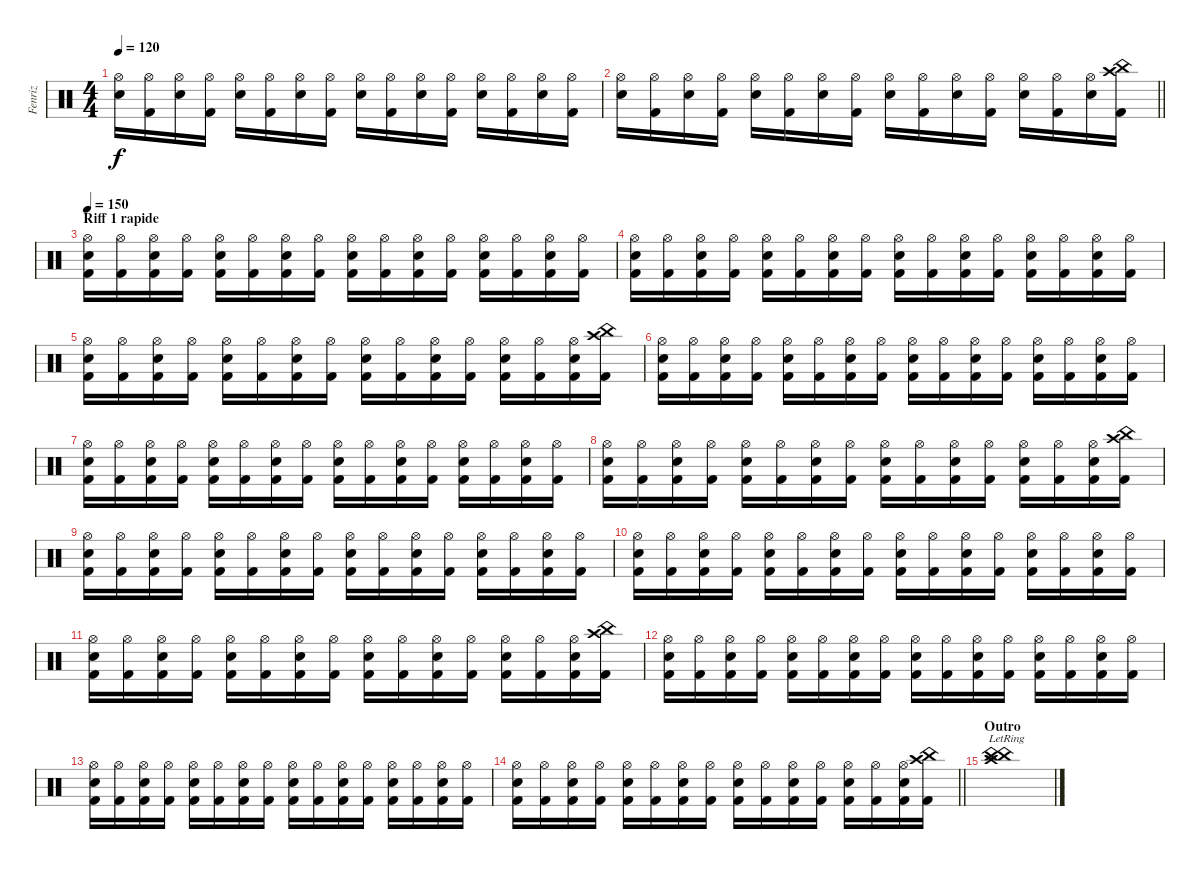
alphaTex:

\track ("Fenriz" "Fenriz") {instrument percussion}
\staff {score}
\articulation defaults
\ts (4 4)
\tempo 120
\clef neutral
\ks c
("Hi-Hat (open)" "Electric Snare (hit)").16{dy f} ("Hi-Hat (open)" "Kick (hit) 2").16 ("Hi-Hat (open)" "Electric Snare (hit)").16 ("Hi-Hat (open)" "Kick (hit) 2").16 ("Hi-Hat (open)" "Electric Snare (hit)").16 ("Hi-Hat (open)" "Kick (hit) 2").16 ("Hi-Hat (open)" "Electric Snare (hit)").16 ("Hi-Hat (open)" "Kick (hit) 2").16 ("Hi-Hat (open)" "Electric Snare (hit)").16 ("Hi-Hat (open)" "Kick (hit) 2").16 ("Hi-Hat (open)" "Electric Snare (hit)").16 ("Hi-Hat (open)" "Kick (hit) 2").16 ("Hi-Hat (open)" "Electric Snare (hit)").16 ("Hi-Hat (open)" "Kick (hit) 2").16 ("Hi-Hat (open)" "Electric Snare (hit)").16 ("Hi-Hat (open)" "Kick (hit) 2").16 |
\barLineRight lightlight
("Hi-Hat (open)" "Electric Snare (hit)").16 ("Hi-Hat (open)" "Kick (hit) 2").16 ("Hi-Hat (open)" "Electric Snare (hit)").16 ("Hi-Hat (open)" "Kick (hit) 2").16 ("Hi-Hat (open)" "Electric Snare (hit)").16 ("Hi-Hat (open)" "Kick (hit) 2").16 ("Hi-Hat (open)" "Electric Snare (hit)").16 ("Hi-Hat (open)" "Kick (hit) 2").16 ("Hi-Hat (open)" "Electric Snare (hit)").16 ("Hi-Hat (open)" "Kick (hit) 2").16 ("Hi-Hat (open)" "Electric Snare (hit)").16 ("Hi-Hat (open)" "Kick (hit) 2").16 ("Hi-Hat (open)" "Electric Snare (hit)").16 ("Hi-Hat (open)" "Kick (hit) 2").16 ("Hi-Hat (open)" "Electric Snare (hit)").16 ("China (hit)" "Crash high (hit)" "Kick (hit) 2").16 |
\section ("" "Riff 1 rapide")
\tempo 150
("Hi-Hat (open)" "Electric Snare (hit)" "Kick (hit) 2").16 ("Hi-Hat (open)" "Kick (hit) 2").16 ("Hi-Hat (open)" "Electric Snare (hit)" "Kick (hit) 2").16 ("Hi-Hat (open)" "Kick (hit) 2").16 ("Hi-Hat (open)" "Electric Snare (hit)" "Kick (hit) 2").16 ("Hi-Hat (open)" "Kick (hit) 2").16 ("Hi-Hat (open)" "Electric Snare (hit)" "Kick (hit) 2").16 ("Hi-Hat (open)" "Kick (hit) 2").16 ("Hi-Hat (open)" "Electric Snare (hit)" "Kick (hit) 2").16 ("Hi-Hat (open)" "Kick (hit) 2").16 ("Hi-Hat (open)" "Electric Snare (hit)" "Kick (hit) 2").16 ("Hi-Hat (open)" "Kick (hit) 2").16 ("Hi-Hat (open)" "Electric Snare (hit)" "Kick (hit) 2").16 ("Hi-Hat (open)" "Kick (hit) 2").16 ("Hi-Hat (open)" "Electric Snare (hit)" "Kick (hit) 2").16 ("Hi-Hat (open)" "Kick (hit) 2").16 |
("Hi-Hat (open)" "Electric Snare (hit)" "Kick (hit) 2").16 ("Hi-Hat (open)" "Kick (hit) 2").16 ("Hi-Hat (open)" "Electric Snare (hit)" "Kick (hit) 2").16 ("Hi-Hat (open)" "Kick (hit) 2").16 ("Hi-Hat (open)" "Electric Snare (hit)" "Kick (hit) 2").16 ("Hi-Hat (open)" "Kick (hit) 2").16 ("Hi-Hat (open)" "Electric Snare (hit)" "Kick (hit) 2").16 ("Hi-Hat (open)" "Kick (hit) 2").16 ("Hi-Hat (open)" "Electric Snare (hit)" "Kick (hit) 2").16 ("Hi-Hat (open)" "Kick (hit) 2").16 ("Hi-Hat (open)" "Electric Snare (hit)" "Kick (hit) 2").16 ("Hi-Hat (open)" "Kick (hit) 2").16 ("Hi-Hat (open)" "Electric Snare (hit)" "Kick (hit) 2").16 ("Hi-Hat (open)" "Kick (hit) 2").16 ("Hi-Hat (open)" "Electric Snare (hit)" "Kick (hit) 2").16 ("Hi-Hat (open)" "Kick (hit) 2").16 |
("Hi-Hat (open)" "Electric Snare (hit)" "Kick (hit) 2").16 ("Hi-Hat (open)" "Kick (hit) 2").16 ("Hi-Hat (open)" "Electric Snare (hit)" "Kick (hit) 2").16 ("Hi-Hat (open)" "Kick (hit) 2").16 ("Hi-Hat (open)" "Electric Snare (hit)" "Kick (hit) 2").16 ("Hi-Hat (open)" "Kick (hit) 2").16 ("Hi-Hat (open)" "Electric Snare (hit)" "Kick (hit) 2").16 ("Hi-Hat (open)" "Kick (hit) 2").16 ("Hi-Hat (open)" "Electric Snare (hit)" "Kick (hit) 2").16 ("Hi-Hat (open)" "Kick (hit) 2").16 ("Hi-Hat (open)" "Electric Snare (hit)" "Kick (hit) 2").16 ("Hi-Hat (open)" "Kick (hit) 2").16 ("Hi-Hat (open)" "Electric Snare (hit)" "Kick (hit) 2").16 ("Hi-Hat (open)" "Kick (hit) 2").16 ("Hi-Hat (open)" "Electric Snare (hit)" "Kick (hit) 2").16 ("China (hit)" "Crash high (hit)" "Kick (hit) 2").16 |
("Hi-Hat (open)" "Electric Snare (hit)" "Kick (hit) 2").16 ("Hi-Hat (open)" "Kick (hit) 2").16 ("Hi-Hat (open)" "Electric Snare (hit)" "Kick (hit) 2").16 ("Hi-Hat (open)" "Kick (hit) 2").16 ("Hi-Hat (open)" "Electric Snare (hit)" "Kick (hit) 2").16 ("Hi-Hat (open)" "Kick (hit) 2").16 ("Hi-Hat (open)" "Electric Snare (hit)" "Kick (hit) 2").16 ("Hi-Hat (open)" "Kick (hit) 2").16 ("Hi-Hat (open)" "Electric Snare (hit)" "Kick (hit) 2").16 ("Hi-Hat (open)" "Kick (hit) 2").16 ("Hi-Hat (open)" "Electric Snare (hit)" "Kick (hit) 2").16 ("Hi-Hat (open)" "Kick (hit) 2").16 ("Hi-Hat (open)" "Electric Snare (hit)" "Kick (hit) 2").16 ("Hi-Hat (open)" "Kick (hit) 2").16 ("Hi-Hat (open)" "Electric Snare (hit)" "Kick (hit) 2").16 ("Hi-Hat (open)" "Kick (hit) 2").16 |
("Hi-Hat (open)" "Electric Snare (hit)" "Kick (hit) 2").16 ("Hi-Hat (open)" "Kick (hit) 2").16 ("Hi-Hat (open)" "Electric Snare (hit)" "Kick (hit) 2").16 ("Hi-Hat (open)" "Kick (hit) 2").16 ("Hi-Hat (open)" "Electric Snare (hit)" "Kick (hit) 2").16 ("Hi-Hat (open)" "Kick (hit) 2").16 ("Hi-Hat (open)" "Electric Snare (hit)" "Kick (hit) 2").16 ("Hi-Hat (open)" "Kick (hit) 2").16 ("Hi-Hat (open)" "Electric Snare (hit)" "Kick (hit) 2").16 ("Hi-Hat (open)" "Kick (hit) 2").16 ("Hi-Hat (open)" "Electric Snare (hit)" "Kick (hit) 2").16 ("Hi-Hat (open)" "Kick (hit) 2").16 ("Hi-Hat (open)" "Electric Snare (hit)" "Kick (hit) 2").16 ("Hi-Hat (open)" "Kick (hit) 2").16 ("Hi-Hat (open)" "Electric Snare (hit)" "Kick (hit) 2").16 ("Hi-Hat (open)" "Kick (hit) 2").16 |
("Hi-Hat (open)" "Electric Snare (hit)" "Kick (hit) 2").16 ("Hi-Hat (open)" "Kick (hit) 2").16 ("Hi-Hat (open)" "Electric Snare (hit)" "Kick (hit) 2").16 ("Hi-Hat (open)" "Kick (hit) 2").16 ("Hi-Hat (open)" "Electric Snare (hit)" "Kick (hit) 2").16 ("Hi-Hat (open)" "Kick (hit) 2").16 ("Hi-Hat (open)" "Electric Snare (hit)" "Kick (hit) 2").16 ("Hi-Hat (open)" "Kick (hit) 2").16 ("Hi-Hat (open)" "Electric Snare (hit)" "Kick (hit) 2").16 ("Hi-Hat (open)" "Kick (hit) 2").16 ("Hi-Hat (open)" "Electric Snare (hit)" "Kick (hit) 2").16 ("Hi-Hat (open)" "Kick (hit) 2").16 ("Hi-Hat (open)" "Electric Snare (hit)" "Kick (hit) 2").16 ("Hi-Hat (open)" "Kick (hit) 2").16 ("Hi-Hat (open)" "Electric Snare (hit)" "Kick (hit) 2").16 ("China (hit)" "Crash high (hit)" "Kick (hit) 2").16 |
("Hi-Hat (open)" "Electric Snare (hit)" "Kick (hit) 2").16 ("Hi-Hat (open)" "Kick (hit) 2").16 ("Hi-Hat (open)" "Electric Snare (hit)" "Kick (hit) 2").16 ("Hi-Hat (open)" "Kick (hit) 2").16 ("Hi-Hat (open)" "Electric Snare (hit)" "Kick (hit) 2").16 ("Hi-Hat (open)" "Kick (hit) 2").16 ("Hi-Hat (open)" "Electric Snare (hit)" "Kick (hit) 2").16 ("Hi-Hat (open)" "Kick (hit) 2").16 ("Hi-Hat (open)" "Electric Snare (hit)" "Kick (hit) 2").16 ("Hi-Hat (open)" "Kick (hit) 2").16 ("Hi-Hat (open)" "Electric Snare (hit)" "Kick (hit) 2").16 ("Hi-Hat (open)" "Kick (hit) 2").16 ("Hi-Hat (open)" "Electric Snare (hit)" "Kick (hit) 2").16 ("Hi-Hat (open)" "Kick (hit) 2").16 ("Hi-Hat (open)" "Electric Snare (hit)" "Kick (hit) 2").16 ("Hi-Hat (open)" "Kick (hit) 2").16 |
("Hi-Hat (open)" "Electric Snare (hit)" "Kick (hit) 2").16 ("Hi-Hat (open)" "Kick (hit) 2").16 ("Hi-Hat (open)" "Electric Snare (hit)" "Kick (hit) 2").16 ("Hi-Hat (open)" "Kick (hit) 2").16 ("Hi-Hat (open)" "Electric Snare (hit)" "Kick (hit) 2").16 ("Hi-Hat (open)" "Kick (hit) 2").16 ("Hi-Hat (open)" "Electric Snare (hit)" "Kick (hit) 2").16 ("Hi-Hat (open)" "Kick (hit) 2").16 ("Hi-Hat (open)" "Electric Snare (hit)" "Kick (hit) 2").16 ("Hi-Hat (open)" "Kick (hit) 2").16 ("Hi-Hat (open)" "Electric Snare (hit)" "Kick (hit) 2").16 ("Hi-Hat (open)" "Kick (hit) 2").16 ("Hi-Hat (open)" "Electric Snare (hit)" "Kick (hit) 2").16 ("Hi-Hat (open)" "Kick (hit) 2").16 ("Hi-Hat (open)" "Electric Snare (hit)" "Kick (hit) 2").16 ("Hi-Hat (open)" "Kick (hit) 2").16 |
("Hi-Hat (open)" "Electric Snare (hit)" "Kick (hit) 2").16 ("Hi-Hat (open)" "Kick (hit) 2").16 ("Hi-Hat (open)" "Electric Snare (hit)" "Kick (hit) 2").16 ("Hi-Hat (open)" "Kick (hit) 2").16 ("Hi-Hat (open)" "Electric Snare (hit)" "Kick (hit) 2").16 ("Hi-Hat (open)" "Kick (hit) 2").16 ("Hi-Hat (open)" "Electric Snare (hit)" "Kick (hit) 2").16 ("Hi-Hat (open)" "Kick (hit) 2").16 ("Hi-Hat (open)" "Electric Snare (hit)" "Kick (hit) 2").16 ("Hi-Hat (open)" "Kick (hit) 2").16 ("Hi-Hat (open)" "Electric Snare (hit)" "Kick (hit) 2").16 ("Hi-Hat (open)" "Kick (hit) 2").16 ("Hi-Hat (open)" "Electric Snare (hit)" "Kick (hit) 2").16 ("Hi-Hat (open)" "Kick (hit) 2").16 ("Hi-Hat (open)" "Electric Snare (hit)" "Kick (hit) 2").16 ("China (hit)" "Crash high (hit)" "Kick (hit) 2").16 |
("Hi-Hat (open)" "Electric Snare (hit)" "Kick (hit) 2").16 ("Hi-Hat (open)" "Kick (hit) 2").16 ("Hi-Hat (open)" "Electric Snare (hit)" "Kick (hit) 2").16 ("Hi-Hat (open)" "Kick (hit) 2").16 ("Hi-Hat (open)" "Electric Snare (hit)" "Kick (hit) 2").16 ("Hi-Hat (open)" "Kick (hit) 2").16 ("Hi-Hat (open)" "Electric Snare (hit)" "Kick (hit) 2").16 ("Hi-Hat (open)" "Kick (hit) 2").16 ("Hi-Hat (open)" "Electric Snare (hit)" "Kick (hit) 2").16 ("Hi-Hat (open)" "Kick (hit) 2").16 ("Hi-Hat (open)" "Electric Snare (hit)" "Kick (hit) 2").16 ("Hi-Hat (open)" "Kick (hit) 2").16 ("Hi-Hat (open)" "Electric Snare (hit)" "Kick (hit) 2").16 ("Hi-Hat (open)" "Kick (hit) 2").16 ("Hi-Hat (open)" "Electric Snare (hit)" "Kick (hit) 2").16 ("Hi-Hat (open)" "Kick (hit) 2").16 |
("Hi-Hat (open)" "Electric Snare (hit)" "Kick (hit) 2").16 ("Hi-Hat (open)" "Kick (hit) 2").16 ("Hi-Hat (open)" "Electric Snare (hit)" "Kick (hit) 2").16 ("Hi-Hat (open)" "Kick (hit) 2").16 ("Hi-Hat (open)" "Electric Snare (hit)" "Kick (hit) 2").16 ("Hi-Hat (open)" "Kick (hit) 2").16 ("Hi-Hat (open)" "Electric Snare (hit)" "Kick (hit) 2").16 ("Hi-Hat (open)" "Kick (hit) 2").16 ("Hi-Hat (open)" "Electric Snare (hit)" "Kick (hit) 2").16 ("Hi-Hat (open)" "Kick (hit) 2").16 ("Hi-Hat (open)" "Electric Snare (hit)" "Kick (hit) 2").16 ("Hi-Hat (open)" "Kick (hit) 2").16 ("Hi-Hat (open)" "Electric Snare (hit)" "Kick (hit) 2").16 ("Hi-Hat (open)" "Kick (hit) 2").16 ("Hi-Hat (open)" "Electric Snare (hit)" "Kick (hit) 2").16 ("Hi-Hat (open)" "Kick (hit) 2").16 |
\barLineRight lightlight
("Hi-Hat (open)" "Electric Snare (hit)" "Kick (hit) 2").16 ("Hi-Hat (open)" "Kick (hit) 2").16 ("Hi-Hat (open)" "Electric Snare (hit)" "Kick (hit) 2").16 ("Hi-Hat (open)" "Kick (hit) 2").16 ("Hi-Hat (open)" "Electric Snare (hit)" "Kick (hit) 2").16 ("Hi-Hat (open)" "Kick (hit) 2").16 ("Hi-Hat (open)" "Electric Snare (hit)" "Kick (hit) 2").16 ("Hi-Hat (open)" "Kick (hit) 2").16 ("Hi-Hat (open)" "Electric Snare (hit)" "Kick (hit) 2").16 ("Hi-Hat (open)" "Kick (hit) 2").16 ("Hi-Hat (open)" "Electric Snare (hit)" "Kick (hit) 2").16 ("Hi-Hat (open)" "Kick (hit) 2").16 ("Hi-Hat (open)" "Electric Snare (hit)" "Kick (hit) 2").16 ("Hi-Hat (open)" "Kick (hit) 2").16 ("Hi-Hat (open)" "Electric Snare (hit)" "Kick (hit) 2").16 ("China (hit)" "Crash high (hit)" "Kick (hit) 2").16 |
\section ("" "Outro")
("China (hit)"{lr} "China (hit)"{lr} "Crash high (hit)"{lr}).1
